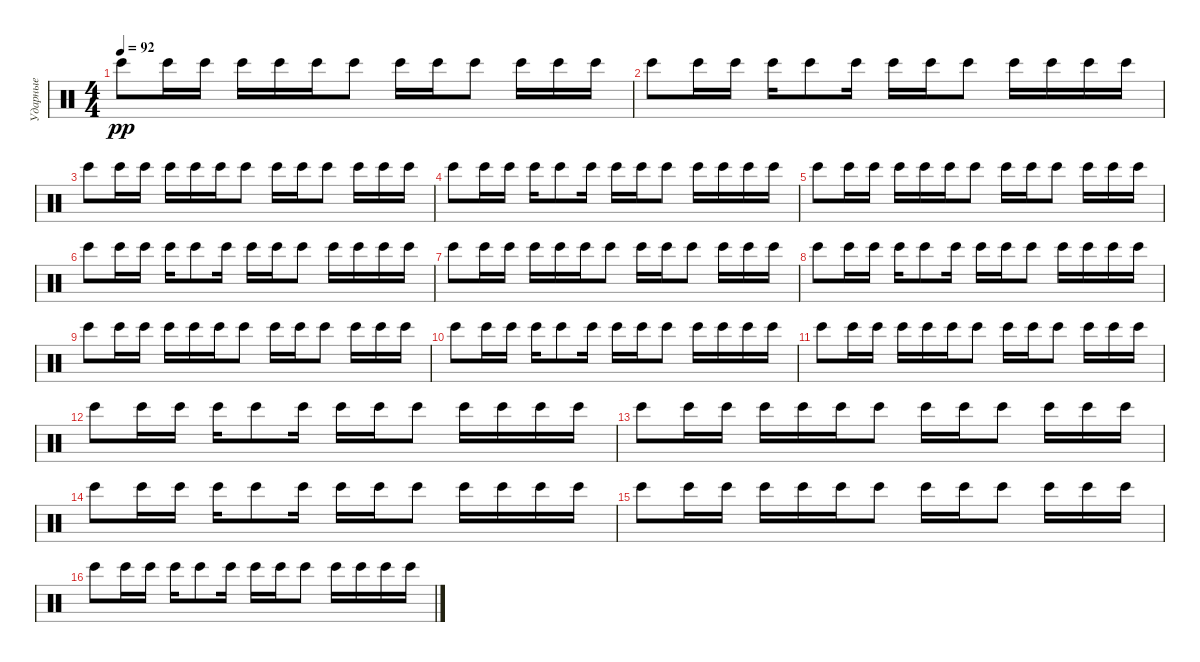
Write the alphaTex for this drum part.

\track ("Ударные" "Ударные") {instrument percussion}
\staff {score}
\articulation defaults
\ts (4 4)
\tempo 92
\clef neutral
\ks c "Bongo High (hit)".8{dy pp} "Bongo High (hit)".16 "Bongo High (hit)".16 "Bongo High (hit)".16 "Bongo High (hit)".16 "Bongo High (hit)".16 "Bongo High (hit)".8 "Bongo High (hit)".16 "Bongo High (hit)".16 "Bongo High (hit)".8 "Bongo High (hit)".16 "Bongo High (hit)".16 "Bongo High (hit)".16
|
"Bongo High (hit)".8 "Bongo High (hit)".16 "Bongo High (hit)".16 "Bongo High (hit)".16 "Bongo High (hit)".8 "Bongo High (hit)".16 "Bongo High (hit)".16 "Bongo High (hit)".16 "Bongo High (hit)".8 "Bongo High (hit)".16 "Bongo High (hit)".16 "Bongo High (hit)".16 "Bongo High (hit)".16 |
"Bongo High (hit)".8 "Bongo High (hit)".16 "Bongo High (hit)".16 "Bongo High (hit)".16 "Bongo High (hit)".16 "Bongo High (hit)".16 "Bongo High (hit)".8 "Bongo High (hit)".16 "Bongo High (hit)".16 "Bongo High (hit)".8 "Bongo High (hit)".16 "Bongo High (hit)".16 "Bongo High (hit)".16 |
"Bongo High (hit)".8 "Bongo High (hit)".16 "Bongo High (hit)".16 "Bongo High (hit)".16 "Bongo High (hit)".8 "Bongo High (hit)".16 "Bongo High (hit)".16 "Bongo High (hit)".16 "Bongo High (hit)".8 "Bongo High (hit)".16 "Bongo High (hit)".16 "Bongo High (hit)".16 "Bongo High (hit)".16 |
"Bongo High (hit)".8 "Bongo High (hit)".16 "Bongo High (hit)".16 "Bongo High (hit)".16 "Bongo High (hit)".16 "Bongo High (hit)".16 "Bongo High (hit)".8 "Bongo High (hit)".16 "Bongo High (hit)".16 "Bongo High (hit)".8 "Bongo High (hit)".16 "Bongo High (hit)".16 "Bongo High (hit)".16 |
"Bongo High (hit)".8 "Bongo High (hit)".16 "Bongo High (hit)".16 "Bongo High (hit)".16 "Bongo High (hit)".8 "Bongo High (hit)".16 "Bongo High (hit)".16 "Bongo High (hit)".16 "Bongo High (hit)".8 "Bongo High (hit)".16 "Bongo High (hit)".16 "Bongo High (hit)".16 "Bongo High (hit)".16 |
"Bongo High (hit)".8 "Bongo High (hit)".16 "Bongo High (hit)".16 "Bongo High (hit)".16 "Bongo High (hit)".16 "Bongo High (hit)".16 "Bongo High (hit)".8 "Bongo High (hit)".16 "Bongo High (hit)".16 "Bongo High (hit)".8 "Bongo High (hit)".16 "Bongo High (hit)".16 "Bongo High (hit)".16 |
"Bongo High (hit)".8 "Bongo High (hit)".16 "Bongo High (hit)".16 "Bongo High (hit)".16 "Bongo High (hit)".8 "Bongo High (hit)".16 "Bongo High (hit)".16 "Bongo High (hit)".16 "Bongo High (hit)".8 "Bongo High (hit)".16 "Bongo High (hit)".16 "Bongo High (hit)".16 "Bongo High (hit)".16 |
"Bongo High (hit)".8 "Bongo High (hit)".16 "Bongo High (hit)".16 "Bongo High (hit)".16 "Bongo High (hit)".16 "Bongo High (hit)".16 "Bongo High (hit)".8 "Bongo High (hit)".16 "Bongo High (hit)".16 "Bongo High (hit)".8 "Bongo High (hit)".16 "Bongo High (hit)".16 "Bongo High (hit)".16 |
"Bongo High (hit)".8 "Bongo High (hit)".16 "Bongo High (hit)".16 "Bongo High (hit)".16 "Bongo High (hit)".8 "Bongo High (hit)".16 "Bongo High (hit)".16 "Bongo High (hit)".16 "Bongo High (hit)".8 "Bongo High (hit)".16 "Bongo High (hit)".16 "Bongo High (hit)".16 "Bongo High (hit)".16 |
"Bongo High (hit)".8 "Bongo High (hit)".16 "Bongo High (hit)".16 "Bongo High (hit)".16 "Bongo High (hit)".16 "Bongo High (hit)".16 "Bongo High (hit)".8 "Bongo High (hit)".16 "Bongo High (hit)".16 "Bongo High (hit)".8 "Bongo High (hit)".16 "Bongo High (hit)".16 "Bongo High (hit)".16 |
"Bongo High (hit)".8 "Bongo High (hit)".16 "Bongo High (hit)".16 "Bongo High (hit)".16 "Bongo High (hit)".8 "Bongo High (hit)".16 "Bongo High (hit)".16 "Bongo High (hit)".16 "Bongo High (hit)".8 "Bongo High (hit)".16 "Bongo High (hit)".16 "Bongo High (hit)".16 "Bongo High (hit)".16 |
"Bongo High (hit)".8 "Bongo High (hit)".16 "Bongo High (hit)".16 "Bongo High (hit)".16 "Bongo High (hit)".16 "Bongo High (hit)".16 "Bongo High (hit)".8 "Bongo High (hit)".16 "Bongo High (hit)".16 "Bongo High (hit)".8 "Bongo High (hit)".16 "Bongo High (hit)".16 "Bongo High (hit)".16 |
"Bongo High (hit)".8 "Bongo High (hit)".16 "Bongo High (hit)".16 "Bongo High (hit)".16 "Bongo High (hit)".8 "Bongo High (hit)".16 "Bongo High (hit)".16 "Bongo High (hit)".16 "Bongo High (hit)".8 "Bongo High (hit)".16 "Bongo High (hit)".16 "Bongo High (hit)".16 "Bongo High (hit)".16 |
"Bongo High (hit)".8 "Bongo High (hit)".16 "Bongo High (hit)".16 "Bongo High (hit)".16 "Bongo High (hit)".16 "Bongo High (hit)".16 "Bongo High (hit)".8 "Bongo High (hit)".16 "Bongo High (hit)".16 "Bongo High (hit)".8 "Bongo High (hit)".16 "Bongo High (hit)".16 "Bongo High (hit)".16 |
"Bongo High (hit)".8 "Bongo High (hit)".16 "Bongo High (hit)".16 "Bongo High (hit)".16 "Bongo High (hit)".8 "Bongo High (hit)".16 "Bongo High (hit)".16 "Bongo High (hit)".16 "Bongo High (hit)".8 "Bongo High (hit)".16 "Bongo High (hit)".16 "Bongo High (hit)".16 "Bongo High (hit)".16
